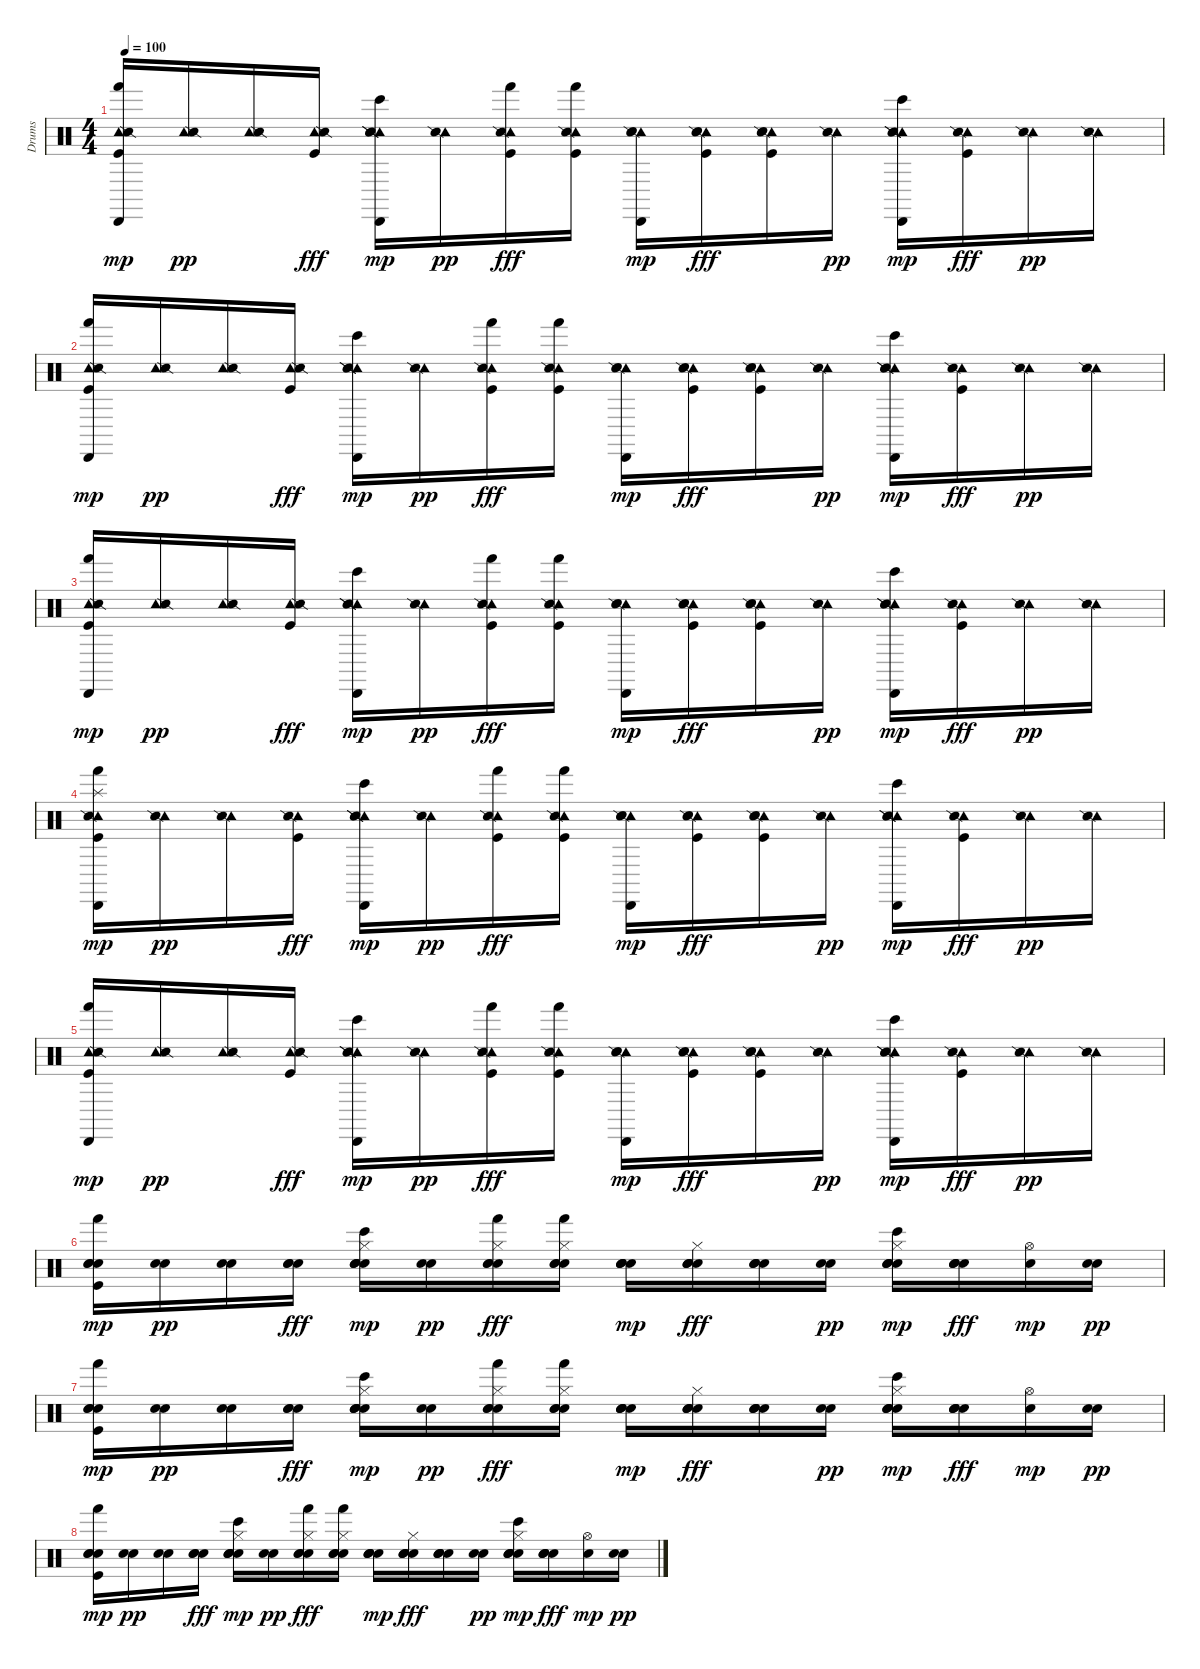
\track ("Drums" "Drums") {instrument percussion}
\staff {score}
\articulation defaults
\ts (4 4)
\tempo 100
\clef neutral
\ks c
("Tambourine (hit)" "Snare (side stick) 2" "Hand (hit)" "Kick (hit)" "Cabasa (hit)").16{dy mp} ("Tambourine (hit)" "Snare (side stick) 2").16{dy pp} ("Tambourine (hit)" "Snare (side stick) 2").16 ("Tambourine (hit)" "Snare (side stick) 2" "Kick (hit)").16{dy fff} ("Tambourine (hit)" "Snare (side stick) 2" "Bongo High (hit)" "Snare (side stick) 2" "Cabasa (hit)").16{dy mp} ("Tambourine (hit)" "Snare (side stick) 2").16{dy pp} ("Tambourine (hit)" "Snare (side stick) 2" "Hand (hit)" "Kick (hit)").16{dy fff} ("Tambourine (hit)" "Snare (side stick) 2" "Hand (hit)" "Kick (hit)").16 ("Tambourine (hit)" "Snare (side stick) 2" "Snare (hit)" "Cabasa (hit)").16{dy mp} ("Tambourine (hit)" "Snare (side stick) 2" "Snare (hit)" "Kick (hit)").16{dy fff} ("Tambourine (hit)" "Snare (side stick) 2" "Snare (hit)" "Kick (hit)").16 ("Tambourine (hit)" "Snare (side stick) 2").16{dy pp} ("Tambourine (hit)" "Snare (side stick) 2" "Bongo High (hit)" "Snare (side stick) 2" "Cabasa (hit)").16{dy mp} ("Tambourine (hit)" "Snare (side stick) 2" "Kick (hit)").16{dy fff} ("Tambourine (hit)" "Snare (side stick) 2").16{dy pp} ("Tambourine (hit)" "Snare (side stick) 2").16 |
("Tambourine (hit)" "Snare (side stick) 2" "Hand (hit)" "Kick (hit)" "Cabasa (hit)").16{dy mp} ("Tambourine (hit)" "Snare (side stick) 2").16{dy pp} ("Tambourine (hit)" "Snare (side stick) 2").16 ("Tambourine (hit)" "Snare (side stick) 2" "Kick (hit)").16{dy fff} ("Tambourine (hit)" "Snare (side stick) 2" "Bongo High (hit)" "Snare (side stick) 2" "Cabasa (hit)").16{dy mp} ("Tambourine (hit)" "Snare (side stick) 2").16{dy pp} ("Tambourine (hit)" "Snare (side stick) 2" "Hand (hit)" "Kick (hit)").16{dy fff} ("Tambourine (hit)" "Snare (side stick) 2" "Hand (hit)" "Kick (hit)").16 ("Tambourine (hit)" "Snare (side stick) 2" "Snare (hit)" "Cabasa (hit)").16{dy mp} ("Tambourine (hit)" "Snare (side stick) 2" "Snare (hit)" "Kick (hit)").16{dy fff} ("Tambourine (hit)" "Snare (side stick) 2" "Snare (hit)" "Kick (hit)").16 ("Tambourine (hit)" "Snare (side stick) 2").16{dy pp} ("Tambourine (hit)" "Snare (side stick) 2" "Bongo High (hit)" "Snare (side stick) 2" "Cabasa (hit)").16{dy mp} ("Tambourine (hit)" "Snare (side stick) 2" "Kick (hit)").16{dy fff} ("Tambourine (hit)" "Snare (side stick) 2").16{dy pp} ("Tambourine (hit)" "Snare (side stick) 2").16 |
("Tambourine (hit)" "Snare (side stick) 2" "Hand (hit)" "Kick (hit)" "Cabasa (hit)").16{dy mp} ("Tambourine (hit)" "Snare (side stick) 2").16{dy pp} ("Tambourine (hit)" "Snare (side stick) 2").16 ("Tambourine (hit)" "Snare (side stick) 2" "Kick (hit)").16{dy fff} ("Tambourine (hit)" "Snare (side stick) 2" "Bongo High (hit)" "Snare (side stick) 2" "Cabasa (hit)").16{dy mp} ("Tambourine (hit)" "Snare (side stick) 2").16{dy pp} ("Tambourine (hit)" "Snare (side stick) 2" "Hand (hit)" "Kick (hit)").16{dy fff} ("Tambourine (hit)" "Snare (side stick) 2" "Hand (hit)" "Kick (hit)").16 ("Tambourine (hit)" "Snare (side stick) 2" "Snare (hit)" "Cabasa (hit)").16{dy mp} ("Tambourine (hit)" "Snare (side stick) 2" "Snare (hit)" "Kick (hit)").16{dy fff} ("Tambourine (hit)" "Snare (side stick) 2" "Snare (hit)" "Kick (hit)").16 ("Tambourine (hit)" "Snare (side stick) 2").16{dy pp} ("Tambourine (hit)" "Snare (side stick) 2" "Bongo High (hit)" "Snare (side stick) 2" "Cabasa (hit)").16{dy mp} ("Tambourine (hit)" "Snare (side stick) 2" "Kick (hit)").16{dy fff} ("Tambourine (hit)" "Snare (side stick) 2").16{dy pp} ("Tambourine (hit)" "Snare (side stick) 2").16 |
("Tambourine (hit)" "Snare (side stick) 2" "Hand (hit)" "Splash (hit)" "Kick (hit)" "Cabasa (hit)").16{dy mp} ("Tambourine (hit)" "Snare (side stick) 2").16{dy pp} ("Tambourine (hit)" "Snare (side stick) 2").16 ("Tambourine (hit)" "Snare (side stick) 2" "Kick (hit)").16{dy fff} ("Tambourine (hit)" "Snare (side stick) 2" "Bongo High (hit)" "Snare (side stick) 2" "Cabasa (hit)").16{dy mp} ("Tambourine (hit)" "Snare (side stick) 2").16{dy pp} ("Tambourine (hit)" "Snare (side stick) 2" "Hand (hit)" "Kick (hit)").16{dy fff} ("Tambourine (hit)" "Snare (side stick) 2" "Hand (hit)" "Kick (hit)").16 ("Tambourine (hit)" "Snare (side stick) 2" "Snare (hit)" "Cabasa (hit)").16{dy mp} ("Tambourine (hit)" "Snare (side stick) 2" "Snare (hit)" "Kick (hit)").16{dy fff} ("Tambourine (hit)" "Snare (side stick) 2" "Snare (hit)" "Kick (hit)").16 ("Tambourine (hit)" "Snare (side stick) 2").16{dy pp} ("Tambourine (hit)" "Snare (side stick) 2" "Bongo High (hit)" "Snare (side stick) 2" "Cabasa (hit)").16{dy mp} ("Tambourine (hit)" "Snare (side stick) 2" "Kick (hit)").16{dy fff} ("Tambourine (hit)" "Snare (side stick) 2").16{dy pp} ("Tambourine (hit)" "Snare (side stick) 2").16 |
("Tambourine (hit)" "Snare (side stick) 2" "Hand (hit)" "Kick (hit)" "Cabasa (hit)").16{dy mp} ("Tambourine (hit)" "Snare (side stick) 2").16{dy pp} ("Tambourine (hit)" "Snare (side stick) 2").16 ("Tambourine (hit)" "Snare (side stick) 2" "Kick (hit)").16{dy fff} ("Tambourine (hit)" "Snare (side stick) 2" "Bongo High (hit)" "Snare (side stick) 2" "Cabasa (hit)").16{dy mp} ("Tambourine (hit)" "Snare (side stick) 2").16{dy pp} ("Tambourine (hit)" "Snare (side stick) 2" "Hand (hit)" "Kick (hit)").16{dy fff} ("Tambourine (hit)" "Snare (side stick) 2" "Hand (hit)" "Kick (hit)").16 ("Tambourine (hit)" "Snare (side stick) 2" "Snare (hit)" "Cabasa (hit)").16{dy mp} ("Tambourine (hit)" "Snare (side stick) 2" "Snare (hit)" "Kick (hit)").16{dy fff} ("Tambourine (hit)" "Snare (side stick) 2" "Snare (hit)" "Kick (hit)").16 ("Tambourine (hit)" "Snare (side stick) 2").16{dy pp} ("Tambourine (hit)" "Snare (side stick) 2" "Bongo High (hit)" "Snare (side stick) 2" "Cabasa (hit)").16{dy mp} ("Tambourine (hit)" "Snare (side stick) 2" "Kick (hit)").16{dy fff} ("Tambourine (hit)" "Snare (side stick) 2").16{dy pp} ("Tambourine (hit)" "Snare (side stick) 2").16 |
("Snare (hit)" "Snare (hit)" "Hand (hit)" "Kick (hit)" "Snare (hit)").16{dy mp} ("Snare (hit)" "Snare (hit)").16{dy pp} ("Snare (hit)" "Snare (hit)").16 ("Snare (hit)" "Snare (hit)" "Snare (hit)").16{dy fff} ("Snare (hit)" "Snare (hit)" "Bongo High (hit)" "Hi-Hat (closed)" "Snare (hit)" "Snare (hit)").16{dy mp} ("Snare (hit)" "Snare (hit)").16{dy pp} ("Snare (hit)" "Snare (hit)" "Hand (hit)" "Hi-Hat (closed)" "Snare (hit)").16{dy fff} ("Snare (hit)" "Snare (hit)" "Hand (hit)" "Hi-Hat (closed)" "Snare (hit)").16 ("Snare (hit)" "Snare (hit)" "Snare (hit)" "Snare (hit)").16{dy mp} ("Snare (hit)" "Snare (hit)" "Snare (hit)" "Hi-Hat (closed)" "Snare (hit)").16{dy fff} ("Snare (hit)" "Snare (hit)" "Snare (hit)" "Snare (hit)").16 ("Snare (hit)" "Snare (hit)").16{dy pp} ("Snare (hit)" "Snare (hit)" "Bongo High (hit)" "Hi-Hat (closed)" "Snare (hit)" "Snare (hit)").16{dy mp} ("Snare (hit)" "Snare (hit)" "Snare (hit)" "Snare (hit)").16{dy fff} ("Snare (hit)" "Hi-Hat (open)").16{dy mp} ("Snare (hit)" "Snare (hit)").16{dy pp} |
("Snare (hit)" "Snare (hit)" "Hand (hit)" "Kick (hit)" "Snare (hit)").16{dy mp} ("Snare (hit)" "Snare (hit)").16{dy pp} ("Snare (hit)" "Snare (hit)").16 ("Snare (hit)" "Snare (hit)" "Snare (hit)").16{dy fff} ("Snare (hit)" "Snare (hit)" "Bongo High (hit)" "Hi-Hat (closed)" "Snare (hit)" "Snare (hit)").16{dy mp} ("Snare (hit)" "Snare (hit)").16{dy pp} ("Snare (hit)" "Snare (hit)" "Hand (hit)" "Hi-Hat (closed)" "Snare (hit)").16{dy fff} ("Snare (hit)" "Snare (hit)" "Hand (hit)" "Hi-Hat (closed)" "Snare (hit)").16 ("Snare (hit)" "Snare (hit)" "Snare (hit)" "Snare (hit)").16{dy mp} ("Snare (hit)" "Snare (hit)" "Snare (hit)" "Hi-Hat (closed)" "Snare (hit)").16{dy fff} ("Snare (hit)" "Snare (hit)" "Snare (hit)" "Snare (hit)").16 ("Snare (hit)" "Snare (hit)").16{dy pp} ("Snare (hit)" "Snare (hit)" "Bongo High (hit)" "Hi-Hat (closed)" "Snare (hit)" "Snare (hit)").16{dy mp} ("Snare (hit)" "Snare (hit)" "Snare (hit)" "Snare (hit)").16{dy fff} ("Snare (hit)" "Hi-Hat (open)").16{dy mp} ("Snare (hit)" "Snare (hit)").16{dy pp} |
("Snare (hit)" "Snare (hit)" "Hand (hit)" "Kick (hit)" "Snare (hit)").16{dy mp} ("Snare (hit)" "Snare (hit)").16{dy pp} ("Snare (hit)" "Snare (hit)").16 ("Snare (hit)" "Snare (hit)" "Snare (hit)").16{dy fff} ("Snare (hit)" "Snare (hit)" "Bongo High (hit)" "Hi-Hat (closed)" "Snare (hit)" "Snare (hit)").16{dy mp} ("Snare (hit)" "Snare (hit)").16{dy pp} ("Snare (hit)" "Snare (hit)" "Hand (hit)" "Hi-Hat (closed)" "Snare (hit)").16{dy fff} ("Snare (hit)" "Snare (hit)" "Hand (hit)" "Hi-Hat (closed)" "Snare (hit)").16 ("Snare (hit)" "Snare (hit)" "Snare (hit)" "Snare (hit)").16{dy mp} ("Snare (hit)" "Snare (hit)" "Snare (hit)" "Hi-Hat (closed)" "Snare (hit)").16{dy fff} ("Snare (hit)" "Snare (hit)" "Snare (hit)" "Snare (hit)").16 ("Snare (hit)" "Snare (hit)").16{dy pp} ("Snare (hit)" "Snare (hit)" "Bongo High (hit)" "Hi-Hat (closed)" "Snare (hit)" "Snare (hit)").16{dy mp} ("Snare (hit)" "Snare (hit)" "Snare (hit)" "Snare (hit)").16{dy fff} ("Snare (hit)" "Hi-Hat (open)").16{dy mp} ("Snare (hit)" "Snare (hit)").16{dy pp}
